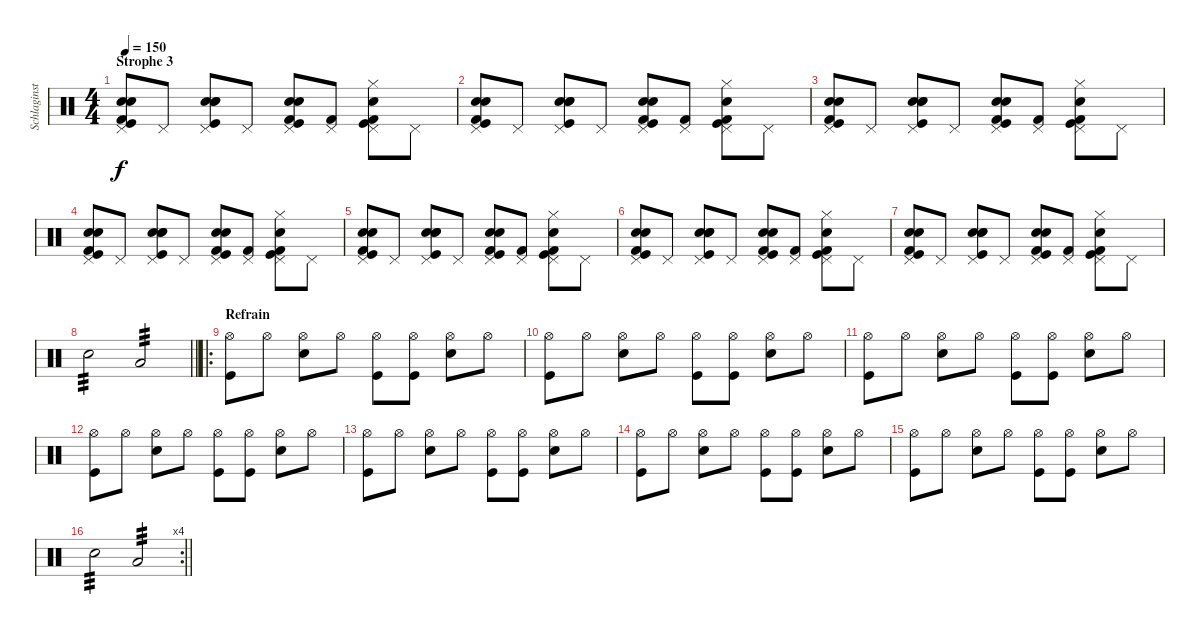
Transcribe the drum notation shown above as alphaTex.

\track ("Schlaginstrumente - Auswahl" "Schlaginst") {instrument percussion}
\staff {score}
\articulation defaults
\ts (4 4)
\section ("" "Strophe 3")
\tempo 150
\clef neutral
\ks c
("Pedal Hi-Hat (hit)" "Kick (hit) 2" "Kick (hit)" "Electric Snare (hit)" "Snare (hit) 2").8{dy f} "Pedal Hi-Hat (hit)".8 ("Pedal Hi-Hat (hit)" "Electric Snare (hit)" "Kick (hit)" "Electric Snare (hit)" "Snare (hit) 2").8 "Pedal Hi-Hat (hit)".8 ("Pedal Hi-Hat (hit)" "Kick (hit) 2" "Kick (hit)" "Electric Snare (hit)" "Snare (hit) 2").8 ("Pedal Hi-Hat (hit)" "Kick (hit) 2").8 ("Pedal Hi-Hat (hit)" "Hi-Hat (closed)" "Kick (hit) 2" "Kick (hit)" "Electric Snare (hit)").8 "Pedal Hi-Hat (hit)".8 |
("Pedal Hi-Hat (hit)" "Kick (hit) 2" "Kick (hit)" "Electric Snare (hit)" "Snare (hit) 2").8 "Pedal Hi-Hat (hit)".8 ("Pedal Hi-Hat (hit)" "Electric Snare (hit)" "Kick (hit)" "Electric Snare (hit)" "Snare (hit) 2").8 "Pedal Hi-Hat (hit)".8 ("Pedal Hi-Hat (hit)" "Kick (hit) 2" "Kick (hit)" "Electric Snare (hit)" "Snare (hit) 2").8 ("Pedal Hi-Hat (hit)" "Kick (hit) 2").8 ("Pedal Hi-Hat (hit)" "Hi-Hat (closed)" "Kick (hit) 2" "Kick (hit)" "Electric Snare (hit)").8 "Pedal Hi-Hat (hit)".8 |
("Pedal Hi-Hat (hit)" "Kick (hit) 2" "Kick (hit)" "Electric Snare (hit)" "Snare (hit) 2").8 "Pedal Hi-Hat (hit)".8 ("Pedal Hi-Hat (hit)" "Electric Snare (hit)" "Kick (hit)" "Electric Snare (hit)" "Snare (hit) 2").8 "Pedal Hi-Hat (hit)".8 ("Pedal Hi-Hat (hit)" "Kick (hit) 2" "Kick (hit)" "Electric Snare (hit)" "Snare (hit) 2").8 ("Pedal Hi-Hat (hit)" "Kick (hit) 2").8 ("Pedal Hi-Hat (hit)" "Hi-Hat (closed)" "Kick (hit) 2" "Kick (hit)" "Electric Snare (hit)").8 "Pedal Hi-Hat (hit)".8 |
("Pedal Hi-Hat (hit)" "Kick (hit) 2" "Kick (hit)" "Electric Snare (hit)" "Snare (hit) 2").8 "Pedal Hi-Hat (hit)".8 ("Pedal Hi-Hat (hit)" "Electric Snare (hit)" "Kick (hit)" "Electric Snare (hit)" "Snare (hit) 2").8 "Pedal Hi-Hat (hit)".8 ("Pedal Hi-Hat (hit)" "Kick (hit) 2" "Kick (hit)" "Electric Snare (hit)" "Snare (hit) 2").8 ("Pedal Hi-Hat (hit)" "Kick (hit) 2").8 ("Pedal Hi-Hat (hit)" "Hi-Hat (closed)" "Kick (hit) 2" "Kick (hit)" "Electric Snare (hit)").8 "Pedal Hi-Hat (hit)".8 |
("Pedal Hi-Hat (hit)" "Kick (hit) 2" "Kick (hit)" "Electric Snare (hit)" "Snare (hit) 2").8 "Pedal Hi-Hat (hit)".8 ("Pedal Hi-Hat (hit)" "Electric Snare (hit)" "Kick (hit)" "Electric Snare (hit)" "Snare (hit) 2").8 "Pedal Hi-Hat (hit)".8 ("Pedal Hi-Hat (hit)" "Kick (hit) 2" "Kick (hit)" "Electric Snare (hit)" "Snare (hit) 2").8 ("Pedal Hi-Hat (hit)" "Kick (hit) 2").8 ("Pedal Hi-Hat (hit)" "Hi-Hat (closed)" "Kick (hit) 2" "Kick (hit)" "Electric Snare (hit)").8 "Pedal Hi-Hat (hit)".8 |
("Pedal Hi-Hat (hit)" "Kick (hit) 2" "Kick (hit)" "Electric Snare (hit)" "Snare (hit) 2").8 "Pedal Hi-Hat (hit)".8 ("Pedal Hi-Hat (hit)" "Electric Snare (hit)" "Kick (hit)" "Electric Snare (hit)" "Snare (hit) 2").8 "Pedal Hi-Hat (hit)".8 ("Pedal Hi-Hat (hit)" "Kick (hit) 2" "Kick (hit)" "Electric Snare (hit)" "Snare (hit) 2").8 ("Pedal Hi-Hat (hit)" "Kick (hit) 2").8 ("Pedal Hi-Hat (hit)" "Hi-Hat (closed)" "Kick (hit) 2" "Kick (hit)" "Electric Snare (hit)").8 "Pedal Hi-Hat (hit)".8 |
("Pedal Hi-Hat (hit)" "Kick (hit) 2" "Kick (hit)" "Electric Snare (hit)" "Snare (hit) 2").8 "Pedal Hi-Hat (hit)".8 ("Pedal Hi-Hat (hit)" "Electric Snare (hit)" "Kick (hit)" "Electric Snare (hit)" "Snare (hit) 2").8 "Pedal Hi-Hat (hit)".8 ("Pedal Hi-Hat (hit)" "Kick (hit) 2" "Kick (hit)" "Electric Snare (hit)" "Snare (hit) 2").8 ("Pedal Hi-Hat (hit)" "Kick (hit) 2").8 ("Pedal Hi-Hat (hit)" "Hi-Hat (closed)" "Kick (hit) 2" "Kick (hit)" "Electric Snare (hit)").8 "Pedal Hi-Hat (hit)".8 |
\barLineRight lightlight "Electric Snare (hit)".2{tp 3} "Low Tom (hit)".2{tp 3}
|
\ro
\section ("" "Refrain")
("Hi-Hat (open)" "Kick (hit)").8 "Hi-Hat (open)".8 ("Hi-Hat (open)" "Electric Snare (hit)").8 "Hi-Hat (open)".8 ("Hi-Hat (open)" "Kick (hit)").8 ("Hi-Hat (open)" "Kick (hit)").8 ("Hi-Hat (open)" "Electric Snare (hit)").8 "Hi-Hat (open)".8 |
("Hi-Hat (open)" "Kick (hit)").8 "Hi-Hat (open)".8 ("Hi-Hat (open)" "Electric Snare (hit)").8 "Hi-Hat (open)".8 ("Hi-Hat (open)" "Kick (hit)").8 ("Hi-Hat (open)" "Kick (hit)").8 ("Hi-Hat (open)" "Electric Snare (hit)").8 "Hi-Hat (open)".8 |
("Hi-Hat (open)" "Kick (hit)").8 "Hi-Hat (open)".8 ("Hi-Hat (open)" "Electric Snare (hit)").8 "Hi-Hat (open)".8 ("Hi-Hat (open)" "Kick (hit)").8 ("Hi-Hat (open)" "Kick (hit)").8 ("Hi-Hat (open)" "Electric Snare (hit)").8 "Hi-Hat (open)".8 |
("Hi-Hat (open)" "Kick (hit)").8 "Hi-Hat (open)".8 ("Hi-Hat (open)" "Electric Snare (hit)").8 "Hi-Hat (open)".8 ("Hi-Hat (open)" "Kick (hit)").8 ("Hi-Hat (open)" "Kick (hit)").8 ("Hi-Hat (open)" "Electric Snare (hit)").8 "Hi-Hat (open)".8 |
("Hi-Hat (open)" "Kick (hit)").8 "Hi-Hat (open)".8 ("Hi-Hat (open)" "Electric Snare (hit)").8 "Hi-Hat (open)".8 ("Hi-Hat (open)" "Kick (hit)").8 ("Hi-Hat (open)" "Kick (hit)").8 ("Hi-Hat (open)" "Electric Snare (hit)").8 "Hi-Hat (open)".8 |
("Hi-Hat (open)" "Kick (hit)").8 "Hi-Hat (open)".8 ("Hi-Hat (open)" "Electric Snare (hit)").8 "Hi-Hat (open)".8 ("Hi-Hat (open)" "Kick (hit)").8 ("Hi-Hat (open)" "Kick (hit)").8 ("Hi-Hat (open)" "Electric Snare (hit)").8 "Hi-Hat (open)".8 |
("Hi-Hat (open)" "Kick (hit)").8 "Hi-Hat (open)".8 ("Hi-Hat (open)" "Electric Snare (hit)").8 "Hi-Hat (open)".8 ("Hi-Hat (open)" "Kick (hit)").8 ("Hi-Hat (open)" "Kick (hit)").8 ("Hi-Hat (open)" "Electric Snare (hit)").8 "Hi-Hat (open)".8 |
\rc 4
\barLineRight lightlight "Electric Snare (hit)".2{tp 3} "Low Tom (hit)".2{tp 3}
